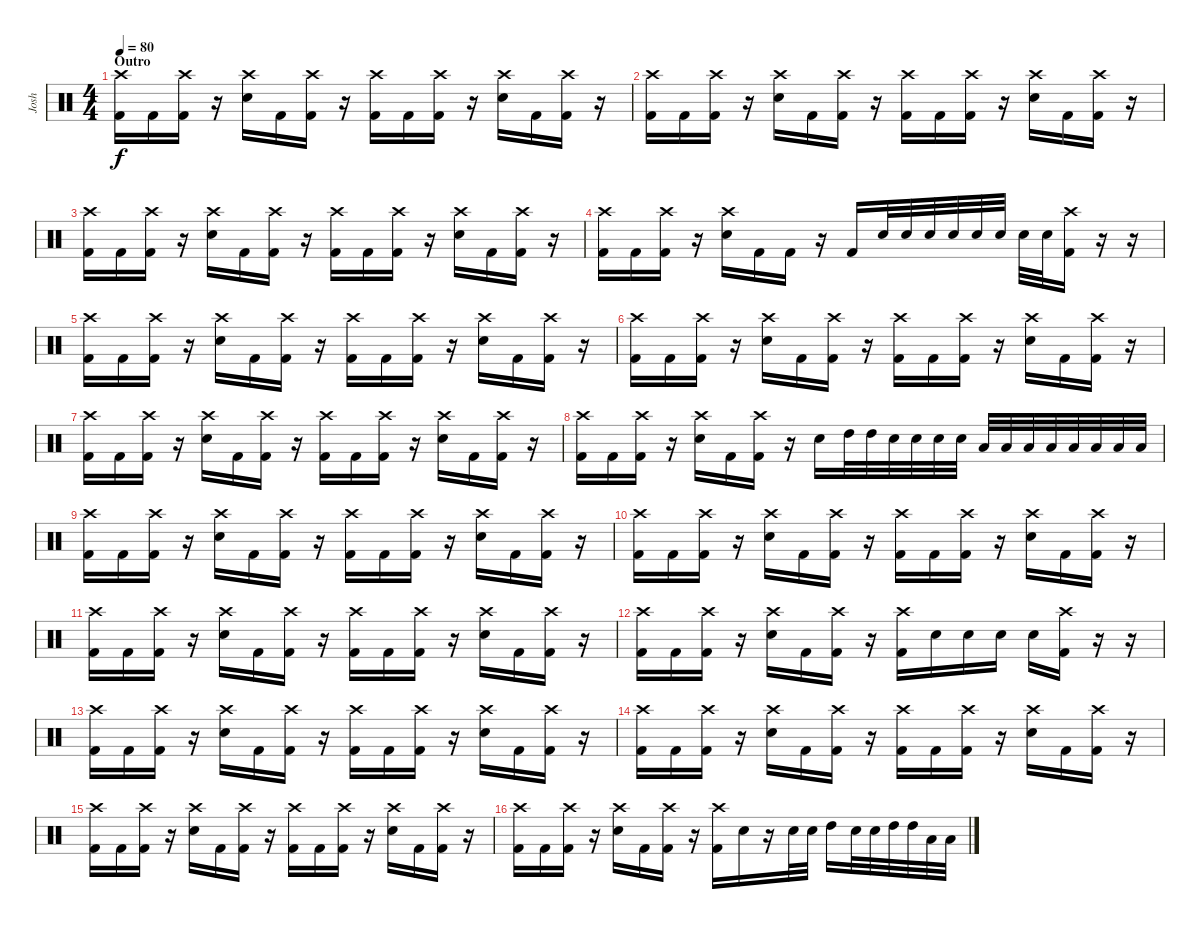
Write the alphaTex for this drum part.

\track ("Josh" "Josh") {instrument percussion}
\staff {score}
\articulation defaults
\ts (4 4)
\section ("" "Outro")
\tempo 80
\clef neutral
\ks c
("Crash high (hit)" "Kick (hit) 2").16{dy f} "Kick (hit) 2".16 ("Crash high (hit)" "Kick (hit) 2").16 r.16 ("Crash high (hit)" "Electric Snare (hit)").16 "Kick (hit) 2".16 ("Crash high (hit)" "Kick (hit) 2").16 r.16 ("Crash high (hit)" "Kick (hit) 2").16 "Kick (hit) 2".16 ("Crash high (hit)" "Kick (hit) 2").16 r.16 ("Crash high (hit)" "Electric Snare (hit)").16 "Kick (hit) 2".16 ("Crash high (hit)" "Kick (hit) 2").16 r.16 |
("Crash high (hit)" "Kick (hit) 2").16 "Kick (hit) 2".16 ("Crash high (hit)" "Kick (hit) 2").16 r.16 ("Crash high (hit)" "Electric Snare (hit)").16 "Kick (hit) 2".16 ("Crash high (hit)" "Kick (hit) 2").16 r.16 ("Crash high (hit)" "Kick (hit) 2").16 "Kick (hit) 2".16 ("Crash high (hit)" "Kick (hit) 2").16 r.16 ("Crash high (hit)" "Electric Snare (hit)").16 "Kick (hit) 2".16 ("Crash high (hit)" "Kick (hit) 2").16 r.16 |
("Crash high (hit)" "Kick (hit) 2").16 "Kick (hit) 2".16 ("Crash high (hit)" "Kick (hit) 2").16 r.16 ("Crash high (hit)" "Electric Snare (hit)").16 "Kick (hit) 2".16 ("Crash high (hit)" "Kick (hit) 2").16 r.16 ("Crash high (hit)" "Kick (hit) 2").16 "Kick (hit) 2".16 ("Crash high (hit)" "Kick (hit) 2").16 r.16 ("Crash high (hit)" "Electric Snare (hit)").16 "Kick (hit) 2".16 ("Crash high (hit)" "Kick (hit) 2").16 r.16 |
("Crash high (hit)" "Kick (hit) 2").16 "Kick (hit) 2".16 ("Crash high (hit)" "Kick (hit) 2").16 r.16 ("Crash high (hit)" "Electric Snare (hit)").16 "Kick (hit) 2".16 "Kick (hit) 2".16 r.16 "Kick (hit) 2".16 "Electric Snare (hit)".32 "Electric Snare (hit)".32 "Electric Snare (hit)".32 "Electric Snare (hit)".32 "Electric Snare (hit)".32 "Electric Snare (hit)".32 "Electric Snare (hit)".32 "Electric Snare (hit)".32 ("Crash high (hit)" "Kick (hit) 2").16 r.16 r.16 |
("Crash high (hit)" "Kick (hit) 2").16 "Kick (hit) 2".16 ("Crash high (hit)" "Kick (hit) 2").16 r.16 ("Crash high (hit)" "Electric Snare (hit)").16 "Kick (hit) 2".16 ("Crash high (hit)" "Kick (hit) 2").16 r.16 ("Crash high (hit)" "Kick (hit) 2").16 "Kick (hit) 2".16 ("Crash high (hit)" "Kick (hit) 2").16 r.16 ("Crash high (hit)" "Electric Snare (hit)").16 "Kick (hit) 2".16 ("Crash high (hit)" "Kick (hit) 2").16 r.16 |
("Crash high (hit)" "Kick (hit) 2").16 "Kick (hit) 2".16 ("Crash high (hit)" "Kick (hit) 2").16 r.16 ("Crash high (hit)" "Electric Snare (hit)").16 "Kick (hit) 2".16 ("Crash high (hit)" "Kick (hit) 2").16 r.16 ("Crash high (hit)" "Kick (hit) 2").16 "Kick (hit) 2".16 ("Crash high (hit)" "Kick (hit) 2").16 r.16 ("Crash high (hit)" "Electric Snare (hit)").16 "Kick (hit) 2".16 ("Crash high (hit)" "Kick (hit) 2").16 r.16 |
("Crash high (hit)" "Kick (hit) 2").16 "Kick (hit) 2".16 ("Crash high (hit)" "Kick (hit) 2").16 r.16 ("Crash high (hit)" "Electric Snare (hit)").16 "Kick (hit) 2".16 ("Crash high (hit)" "Kick (hit) 2").16 r.16 ("Crash high (hit)" "Kick (hit) 2").16 "Kick (hit) 2".16 ("Crash high (hit)" "Kick (hit) 2").16 r.16 ("Crash high (hit)" "Electric Snare (hit)").16 "Kick (hit) 2".16 ("Crash high (hit)" "Kick (hit) 2").16 r.16 |
("Crash high (hit)" "Kick (hit) 2").16 "Kick (hit) 2".16 ("Crash high (hit)" "Kick (hit) 2").16 r.16 ("Crash high (hit)" "Electric Snare (hit)").16 "Kick (hit) 2".16 ("Crash high (hit)" "Kick (hit) 2").16 r.16 "Electric Snare (hit)".16 "High Tom (hit)".32 "High Tom (hit)".32 "Electric Snare (hit)".32 "Electric Snare (hit)".32 "Electric Snare (hit)".32 "Electric Snare (hit)".32 "Low Floor Tom (hit)".32 "Low Floor Tom (hit)".32 "Low Floor Tom (hit)".32 "Low Floor Tom (hit)".32 "Low Floor Tom (hit)".32 "Low Floor Tom (hit)".32 "Low Floor Tom (hit)".32 "Low Floor Tom (hit)".32 |
("Crash high (hit)" "Kick (hit) 2").16 "Kick (hit) 2".16 ("Crash high (hit)" "Kick (hit) 2").16 r.16 ("Crash high (hit)" "Electric Snare (hit)").16 "Kick (hit) 2".16 ("Crash high (hit)" "Kick (hit) 2").16 r.16 ("Crash high (hit)" "Kick (hit) 2").16 "Kick (hit) 2".16 ("Crash high (hit)" "Kick (hit) 2").16 r.16 ("Crash high (hit)" "Electric Snare (hit)").16 "Kick (hit) 2".16 ("Crash high (hit)" "Kick (hit) 2").16 r.16 |
("Crash high (hit)" "Kick (hit) 2").16 "Kick (hit) 2".16 ("Crash high (hit)" "Kick (hit) 2").16 r.16 ("Crash high (hit)" "Electric Snare (hit)").16 "Kick (hit) 2".16 ("Crash high (hit)" "Kick (hit) 2").16 r.16 ("Crash high (hit)" "Kick (hit) 2").16 "Kick (hit) 2".16 ("Crash high (hit)" "Kick (hit) 2").16 r.16 ("Crash high (hit)" "Electric Snare (hit)").16 "Kick (hit) 2".16 ("Crash high (hit)" "Kick (hit) 2").16 r.16 |
("Crash high (hit)" "Kick (hit) 2").16 "Kick (hit) 2".16 ("Crash high (hit)" "Kick (hit) 2").16 r.16 ("Crash high (hit)" "Electric Snare (hit)").16 "Kick (hit) 2".16 ("Crash high (hit)" "Kick (hit) 2").16 r.16 ("Crash high (hit)" "Kick (hit) 2").16 "Kick (hit) 2".16 ("Crash high (hit)" "Kick (hit) 2").16 r.16 ("Crash high (hit)" "Electric Snare (hit)").16 "Kick (hit) 2".16 ("Crash high (hit)" "Kick (hit) 2").16 r.16 |
("Crash high (hit)" "Kick (hit) 2").16 "Kick (hit) 2".16 ("Crash high (hit)" "Kick (hit) 2").16 r.16 ("Crash high (hit)" "Electric Snare (hit)").16 "Kick (hit) 2".16 ("Crash high (hit)" "Kick (hit) 2").16 r.16 ("Crash high (hit)" "Kick (hit) 2").16 "Electric Snare (hit)".16 "Electric Snare (hit)".16 "Electric Snare (hit)".16 "Electric Snare (hit)".16 ("Crash high (hit)" "Kick (hit) 2").16 r.16 r.16 |
("Crash high (hit)" "Kick (hit) 2").16 "Kick (hit) 2".16 ("Crash high (hit)" "Kick (hit) 2").16 r.16 ("Crash high (hit)" "Electric Snare (hit)").16 "Kick (hit) 2".16 ("Crash high (hit)" "Kick (hit) 2").16 r.16 ("Crash high (hit)" "Kick (hit) 2").16 "Kick (hit) 2".16 ("Crash high (hit)" "Kick (hit) 2").16 r.16 ("Crash high (hit)" "Electric Snare (hit)").16 "Kick (hit) 2".16 ("Crash high (hit)" "Kick (hit) 2").16 r.16 |
("Crash high (hit)" "Kick (hit) 2").16 "Kick (hit) 2".16 ("Crash high (hit)" "Kick (hit) 2").16 r.16 ("Crash high (hit)" "Electric Snare (hit)").16 "Kick (hit) 2".16 ("Crash high (hit)" "Kick (hit) 2").16 r.16 ("Crash high (hit)" "Kick (hit) 2").16 "Kick (hit) 2".16 ("Crash high (hit)" "Kick (hit) 2").16 r.16 ("Crash high (hit)" "Electric Snare (hit)").16 "Kick (hit) 2".16 ("Crash high (hit)" "Kick (hit) 2").16 r.16 |
("Crash high (hit)" "Kick (hit) 2").16 "Kick (hit) 2".16 ("Crash high (hit)" "Kick (hit) 2").16 r.16 ("Crash high (hit)" "Electric Snare (hit)").16 "Kick (hit) 2".16 ("Crash high (hit)" "Kick (hit) 2").16 r.16 ("Crash high (hit)" "Kick (hit) 2").16 "Kick (hit) 2".16 ("Crash high (hit)" "Kick (hit) 2").16 r.16 ("Crash high (hit)" "Electric Snare (hit)").16 "Kick (hit) 2".16 ("Crash high (hit)" "Kick (hit) 2").16 r.16 |
("Crash high (hit)" "Kick (hit) 2").16 "Kick (hit) 2".16 ("Crash high (hit)" "Kick (hit) 2").16 r.16 ("Crash high (hit)" "Electric Snare (hit)").16 "Kick (hit) 2".16 ("Crash high (hit)" "Kick (hit) 2").16 r.16 ("Crash high (hit)" "Kick (hit) 2").16 "Electric Snare (hit)".16 r.16 "Electric Snare (hit)".32 "Electric Snare (hit)".32 "High Tom (hit)".16 "Electric Snare (hit)".32 "Electric Snare (hit)".32 "High Tom (hit)".32 "High Tom (hit)".32 "Low Floor Tom (hit)".32 "Low Floor Tom (hit)".32
